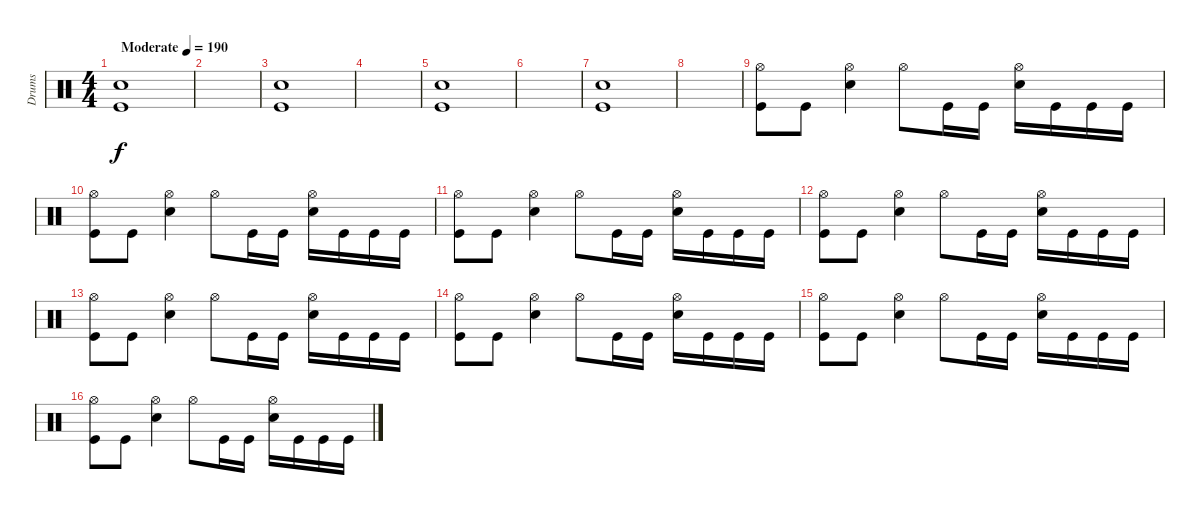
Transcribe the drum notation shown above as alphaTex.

\track ("Drums" "Drums") {instrument percussion}
\staff {score}
\articulation defaults
\ts (4 4)
\tempo (190 "Moderate")
\clef neutral
\ks c
("Snare (hit) 2" "Kick (hit)").1{dy f} |
|
("Snare (hit) 2" "Kick (hit)").1 |
|
("Snare (hit) 2" "Kick (hit)").1 |
|
("Snare (hit) 2" "Kick (hit)").1 |
|
("Hi-Hat (open)" "Kick (hit)").8 "Kick (hit)".8 ("Hi-Hat (open)" "Snare (hit) 2").4 "Hi-Hat (open)".8 "Kick (hit)".16 "Kick (hit)".16 ("Hi-Hat (open)" "Snare (hit) 2").16 "Kick (hit)".16 "Kick (hit)".16 "Kick (hit)".16 |
("Hi-Hat (open)" "Kick (hit)").8 "Kick (hit)".8 ("Hi-Hat (open)" "Snare (hit) 2").4 "Hi-Hat (open)".8 "Kick (hit)".16 "Kick (hit)".16 ("Hi-Hat (open)" "Snare (hit) 2").16 "Kick (hit)".16 "Kick (hit)".16 "Kick (hit)".16 |
("Hi-Hat (open)" "Kick (hit)").8 "Kick (hit)".8 ("Hi-Hat (open)" "Snare (hit) 2").4 "Hi-Hat (open)".8 "Kick (hit)".16 "Kick (hit)".16 ("Hi-Hat (open)" "Snare (hit) 2").16 "Kick (hit)".16 "Kick (hit)".16 "Kick (hit)".16 |
("Hi-Hat (open)" "Kick (hit)").8 "Kick (hit)".8 ("Hi-Hat (open)" "Snare (hit) 2").4 "Hi-Hat (open)".8 "Kick (hit)".16 "Kick (hit)".16 ("Hi-Hat (open)" "Snare (hit) 2").16 "Kick (hit)".16 "Kick (hit)".16 "Kick (hit)".16 |
("Hi-Hat (open)" "Kick (hit)").8 "Kick (hit)".8 ("Hi-Hat (open)" "Snare (hit) 2").4 "Hi-Hat (open)".8 "Kick (hit)".16 "Kick (hit)".16 ("Hi-Hat (open)" "Snare (hit) 2").16 "Kick (hit)".16 "Kick (hit)".16 "Kick (hit)".16 |
("Hi-Hat (open)" "Kick (hit)").8 "Kick (hit)".8 ("Hi-Hat (open)" "Snare (hit) 2").4 "Hi-Hat (open)".8 "Kick (hit)".16 "Kick (hit)".16 ("Hi-Hat (open)" "Snare (hit) 2").16 "Kick (hit)".16 "Kick (hit)".16 "Kick (hit)".16 |
("Hi-Hat (open)" "Kick (hit)").8 "Kick (hit)".8 ("Hi-Hat (open)" "Snare (hit) 2").4 "Hi-Hat (open)".8 "Kick (hit)".16 "Kick (hit)".16 ("Hi-Hat (open)" "Snare (hit) 2").16 "Kick (hit)".16 "Kick (hit)".16 "Kick (hit)".16 |
("Hi-Hat (open)" "Kick (hit)").8 "Kick (hit)".8 ("Hi-Hat (open)" "Snare (hit) 2").4 "Hi-Hat (open)".8 "Kick (hit)".16 "Kick (hit)".16 ("Hi-Hat (open)" "Snare (hit) 2").16 "Kick (hit)".16 "Kick (hit)".16 "Kick (hit)".16
